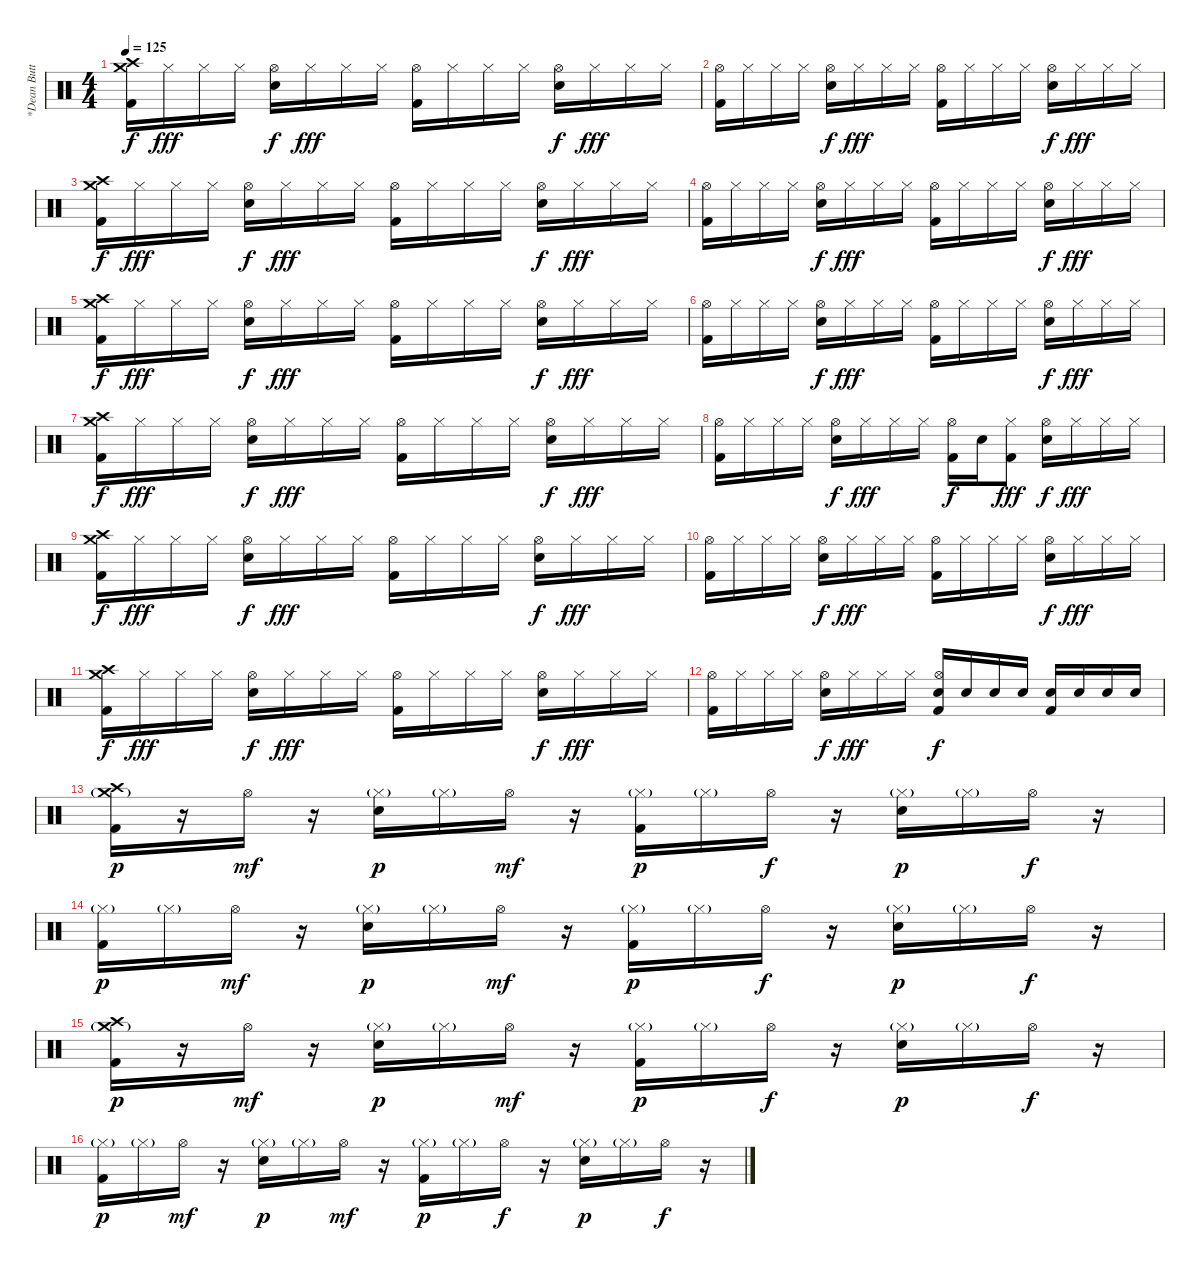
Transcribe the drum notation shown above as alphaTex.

\track ("*Dean Butterworth (Drum)" "*Dean Butt") {instrument percussion}
\staff {score}
\articulation defaults
\ts (4 4)
\tempo 125
\clef neutral
\ks c
("Crash high (hit)" "Crash medium (hit)" "Kick (hit) 2").16{dy f} "Hi-Hat (closed)".16{dy fff} "Hi-Hat (closed)".16 "Hi-Hat (closed)".16 ("Hi-Hat (open)" "Electric Snare (hit)").16{dy f} "Hi-Hat (closed)".16{dy fff} "Hi-Hat (closed)".16 "Hi-Hat (closed)".16 ("Hi-Hat (open)" "Kick (hit) 2").16 "Hi-Hat (closed)".16 "Hi-Hat (closed)".16 "Hi-Hat (closed)".16 ("Hi-Hat (open)" "Electric Snare (hit)").16{dy f} "Hi-Hat (closed)".16{dy fff} "Hi-Hat (closed)".16 "Hi-Hat (closed)".16 |
("Hi-Hat (open)" "Kick (hit) 2").16 "Hi-Hat (closed)".16 "Hi-Hat (closed)".16 "Hi-Hat (closed)".16 ("Hi-Hat (open)" "Electric Snare (hit)").16{dy f} "Hi-Hat (closed)".16{dy fff} "Hi-Hat (closed)".16 "Hi-Hat (closed)".16 ("Hi-Hat (open)" "Kick (hit) 2").16 "Hi-Hat (closed)".16 "Hi-Hat (closed)".16 "Hi-Hat (closed)".16 ("Hi-Hat (open)" "Electric Snare (hit)").16{dy f} "Hi-Hat (closed)".16{dy fff} "Hi-Hat (closed)".16 "Hi-Hat (closed)".16 |
("Crash high (hit)" "Crash medium (hit)" "Kick (hit) 2").16{dy f} "Hi-Hat (closed)".16{dy fff} "Hi-Hat (closed)".16 "Hi-Hat (closed)".16 ("Hi-Hat (open)" "Electric Snare (hit)").16{dy f} "Hi-Hat (closed)".16{dy fff} "Hi-Hat (closed)".16 "Hi-Hat (closed)".16 ("Hi-Hat (open)" "Kick (hit) 2").16 "Hi-Hat (closed)".16 "Hi-Hat (closed)".16 "Hi-Hat (closed)".16 ("Hi-Hat (open)" "Electric Snare (hit)").16{dy f} "Hi-Hat (closed)".16{dy fff} "Hi-Hat (closed)".16 "Hi-Hat (closed)".16 |
("Hi-Hat (open)" "Kick (hit) 2").16 "Hi-Hat (closed)".16 "Hi-Hat (closed)".16 "Hi-Hat (closed)".16 ("Hi-Hat (open)" "Electric Snare (hit)").16{dy f} "Hi-Hat (closed)".16{dy fff} "Hi-Hat (closed)".16 "Hi-Hat (closed)".16 ("Hi-Hat (open)" "Kick (hit) 2").16 "Hi-Hat (closed)".16 "Hi-Hat (closed)".16 "Hi-Hat (closed)".16 ("Hi-Hat (open)" "Electric Snare (hit)").16{dy f} "Hi-Hat (closed)".16{dy fff} "Hi-Hat (closed)".16 "Hi-Hat (closed)".16 |
("Crash high (hit)" "Crash medium (hit)" "Kick (hit) 2").16{dy f} "Hi-Hat (closed)".16{dy fff} "Hi-Hat (closed)".16 "Hi-Hat (closed)".16 ("Hi-Hat (open)" "Electric Snare (hit)").16{dy f} "Hi-Hat (closed)".16{dy fff} "Hi-Hat (closed)".16 "Hi-Hat (closed)".16 ("Hi-Hat (open)" "Kick (hit) 2").16 "Hi-Hat (closed)".16 "Hi-Hat (closed)".16 "Hi-Hat (closed)".16 ("Hi-Hat (open)" "Electric Snare (hit)").16{dy f} "Hi-Hat (closed)".16{dy fff} "Hi-Hat (closed)".16 "Hi-Hat (closed)".16 |
("Hi-Hat (open)" "Kick (hit) 2").16 "Hi-Hat (closed)".16 "Hi-Hat (closed)".16 "Hi-Hat (closed)".16 ("Hi-Hat (open)" "Electric Snare (hit)").16{dy f} "Hi-Hat (closed)".16{dy fff} "Hi-Hat (closed)".16 "Hi-Hat (closed)".16 ("Hi-Hat (open)" "Kick (hit) 2").16 "Hi-Hat (closed)".16 "Hi-Hat (closed)".16 "Hi-Hat (closed)".16 ("Hi-Hat (open)" "Electric Snare (hit)").16{dy f} "Hi-Hat (closed)".16{dy fff} "Hi-Hat (closed)".16 "Hi-Hat (closed)".16 |
("Crash high (hit)" "Crash medium (hit)" "Kick (hit) 2").16{dy f} "Hi-Hat (closed)".16{dy fff} "Hi-Hat (closed)".16 "Hi-Hat (closed)".16 ("Hi-Hat (open)" "Electric Snare (hit)").16{dy f} "Hi-Hat (closed)".16{dy fff} "Hi-Hat (closed)".16 "Hi-Hat (closed)".16 ("Hi-Hat (open)" "Kick (hit) 2").16 "Hi-Hat (closed)".16 "Hi-Hat (closed)".16 "Hi-Hat (closed)".16 ("Hi-Hat (open)" "Electric Snare (hit)").16{dy f} "Hi-Hat (closed)".16{dy fff} "Hi-Hat (closed)".16 "Hi-Hat (closed)".16 |
("Hi-Hat (open)" "Kick (hit) 2").16 "Hi-Hat (closed)".16 "Hi-Hat (closed)".16 "Hi-Hat (closed)".16 ("Hi-Hat (open)" "Electric Snare (hit)").16{dy f} "Hi-Hat (closed)".16{dy fff} "Hi-Hat (closed)".16 "Hi-Hat (closed)".16 ("Hi-Hat (open)" "Kick (hit) 2").16{dy f} "Electric Snare (hit)".16 ("Hi-Hat (closed)" "Kick (hit) 2").8{dy fff} ("Hi-Hat (open)" "Electric Snare (hit)").16{dy f} "Hi-Hat (closed)".16{dy fff} "Hi-Hat (closed)".16 "Hi-Hat (closed)".16 |
("Crash high (hit)" "Crash medium (hit)" "Kick (hit) 2").16{dy f} "Hi-Hat (closed)".16{dy fff} "Hi-Hat (closed)".16 "Hi-Hat (closed)".16 ("Hi-Hat (open)" "Electric Snare (hit)").16{dy f} "Hi-Hat (closed)".16{dy fff} "Hi-Hat (closed)".16 "Hi-Hat (closed)".16 ("Hi-Hat (open)" "Kick (hit) 2").16 "Hi-Hat (closed)".16 "Hi-Hat (closed)".16 "Hi-Hat (closed)".16 ("Hi-Hat (open)" "Electric Snare (hit)").16{dy f} "Hi-Hat (closed)".16{dy fff} "Hi-Hat (closed)".16 "Hi-Hat (closed)".16 |
("Hi-Hat (open)" "Kick (hit) 2").16 "Hi-Hat (closed)".16 "Hi-Hat (closed)".16 "Hi-Hat (closed)".16 ("Hi-Hat (open)" "Electric Snare (hit)").16{dy f} "Hi-Hat (closed)".16{dy fff} "Hi-Hat (closed)".16 "Hi-Hat (closed)".16 ("Hi-Hat (open)" "Kick (hit) 2").16 "Hi-Hat (closed)".16 "Hi-Hat (closed)".16 "Hi-Hat (closed)".16 ("Hi-Hat (open)" "Electric Snare (hit)").16{dy f} "Hi-Hat (closed)".16{dy fff} "Hi-Hat (closed)".16 "Hi-Hat (closed)".16 |
("Crash high (hit)" "Crash medium (hit)" "Kick (hit) 2").16{dy f} "Hi-Hat (closed)".16{dy fff} "Hi-Hat (closed)".16 "Hi-Hat (closed)".16 ("Hi-Hat (open)" "Electric Snare (hit)").16{dy f} "Hi-Hat (closed)".16{dy fff} "Hi-Hat (closed)".16 "Hi-Hat (closed)".16 ("Hi-Hat (open)" "Kick (hit) 2").16 "Hi-Hat (closed)".16 "Hi-Hat (closed)".16 "Hi-Hat (closed)".16 ("Hi-Hat (open)" "Electric Snare (hit)").16{dy f} "Hi-Hat (closed)".16{dy fff} "Hi-Hat (closed)".16 "Hi-Hat (closed)".16 |
("Hi-Hat (open)" "Kick (hit) 2").16 "Hi-Hat (closed)".16 "Hi-Hat (closed)".16 "Hi-Hat (closed)".16 ("Hi-Hat (open)" "Electric Snare (hit)").16{dy f} "Hi-Hat (closed)".16{dy fff} "Hi-Hat (closed)".16 "Hi-Hat (closed)".16 ("Hi-Hat (open)" "Electric Snare (hit)" "Kick (hit) 2").16{dy f} "Electric Snare (hit)".16 "Electric Snare (hit)".16 "Electric Snare (hit)".16 ("Electric Snare (hit)" "Kick (hit) 2").16 "Electric Snare (hit)".16 "Electric Snare (hit)".16 "Electric Snare (hit)".16 |
("Crash high (hit)" "Crash medium (hit)"{g} "Kick (hit) 2").16{dy p} r.16 "Hi-Hat (open)".16{dy mf} r.16 ("Hi-Hat (closed)"{g} "Electric Snare (hit)").16{dy p} "Hi-Hat (closed)"{g}.16 "Hi-Hat (open)".16{dy mf} r.16 ("Hi-Hat (closed)"{g} "Kick (hit) 2").16{dy p} "Hi-Hat (closed)"{g}.16 "Hi-Hat (open)".16{dy f} r.16 ("Hi-Hat (closed)"{g} "Electric Snare (hit)").16{dy p} "Hi-Hat (closed)"{g}.16 "Hi-Hat (open)".16{dy f} r.16 |
("Hi-Hat (closed)"{g} "Kick (hit) 2").16{dy p} "Hi-Hat (closed)"{g}.16 "Hi-Hat (open)".16{dy mf} r.16 ("Hi-Hat (closed)"{g} "Electric Snare (hit)").16{dy p} "Hi-Hat (closed)"{g}.16 "Hi-Hat (open)".16{dy mf} r.16 ("Hi-Hat (closed)"{g} "Kick (hit) 2").16{dy p} "Hi-Hat (closed)"{g}.16 "Hi-Hat (open)".16{dy f} r.16 ("Hi-Hat (closed)"{g} "Electric Snare (hit)").16{dy p} "Hi-Hat (closed)"{g}.16 "Hi-Hat (open)".16{dy f} r.16 |
("Crash high (hit)" "Crash medium (hit)"{g} "Kick (hit) 2").16{dy p} r.16 "Hi-Hat (open)".16{dy mf} r.16 ("Hi-Hat (closed)"{g} "Electric Snare (hit)").16{dy p} "Hi-Hat (closed)"{g}.16 "Hi-Hat (open)".16{dy mf} r.16 ("Hi-Hat (closed)"{g} "Kick (hit) 2").16{dy p} "Hi-Hat (closed)"{g}.16 "Hi-Hat (open)".16{dy f} r.16 ("Hi-Hat (closed)"{g} "Electric Snare (hit)").16{dy p} "Hi-Hat (closed)"{g}.16 "Hi-Hat (open)".16{dy f} r.16 |
("Hi-Hat (closed)"{g} "Kick (hit) 2").16{dy p} "Hi-Hat (closed)"{g}.16 "Hi-Hat (open)".16{dy mf} r.16 ("Hi-Hat (closed)"{g} "Electric Snare (hit)").16{dy p} "Hi-Hat (closed)"{g}.16 "Hi-Hat (open)".16{dy mf} r.16 ("Hi-Hat (closed)"{g} "Kick (hit) 2").16{dy p} "Hi-Hat (closed)"{g}.16 "Hi-Hat (open)".16{dy f} r.16 ("Hi-Hat (closed)"{g} "Electric Snare (hit)").16{dy p} "Hi-Hat (closed)"{g}.16 "Hi-Hat (open)".16{dy f} r.16
